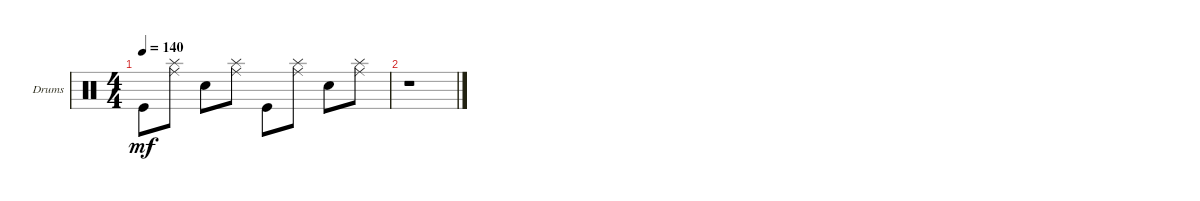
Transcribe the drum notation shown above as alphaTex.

\defaultSystemsLayout 4
\bracketExtendMode groupsimilarinstruments
\firstSystemTrackNameOrientation horizontal
\otherSystemsTrackNameOrientation horizontal
\track ("Drumkit" "Drums") {instrument percussion}
\staff {score}
\articulation defaults
\ts (4 4)
\tempo 140
\clef neutral
\ks c "Kick (hit)".8{dy mf}
("Splash (hit)" "Ride (middle)").8 "Snare (hit) 2".8 ("Splash (hit)" "Ride (middle)").8 "Kick (hit)".8 ("Splash (hit)" "Ride (middle)").8 "Snare (hit) 2".8 ("Splash (hit)" "Ride (middle)").8 |
r.1
